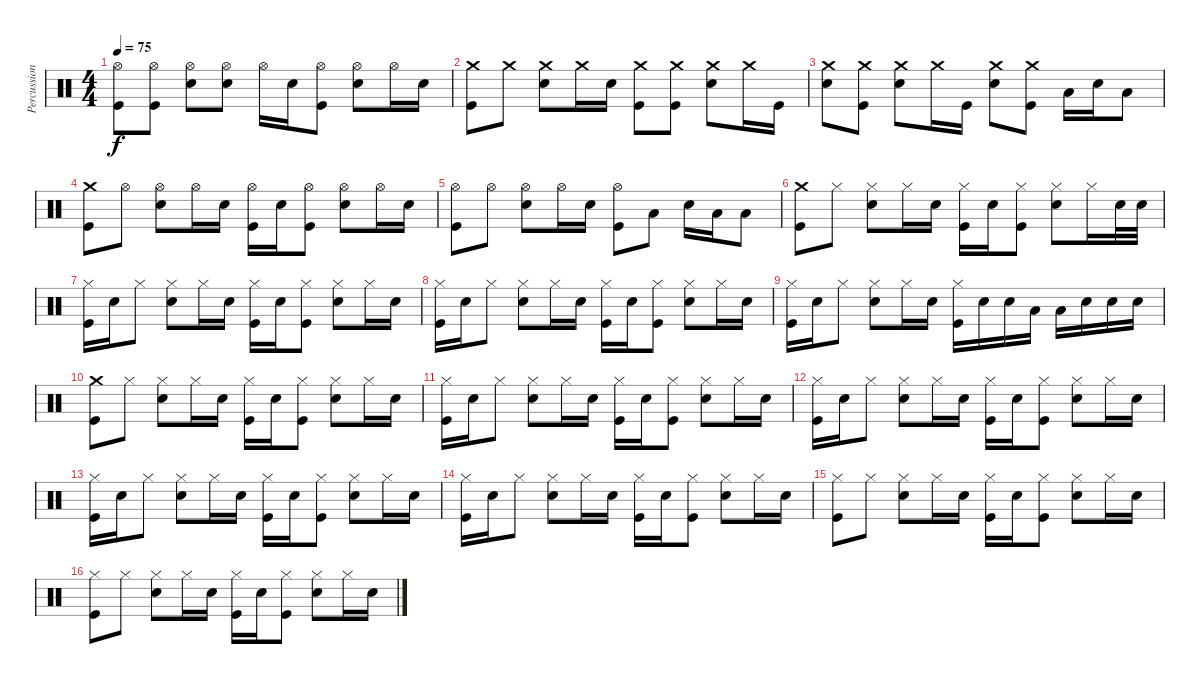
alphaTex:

\track ("Percussion" "Percussion") {instrument percussion}
\staff {score}
\articulation defaults
\ts (4 4)
\tempo 75
\clef neutral
\ks c
("Hi-Hat (open)" "Kick (hit)").8{dy f} ("Hi-Hat (open)" "Kick (hit)").8 ("Hi-Hat (open)" "Snare (hit) 2").8 ("Hi-Hat (open)" "Snare (hit) 2").8 "Hi-Hat (open)".16 "Snare (hit) 2".16 ("Hi-Hat (open)" "Kick (hit)").8 ("Hi-Hat (open)" "Snare (hit) 2").8 "Hi-Hat (open)".16 "Snare (hit) 2".16 |
("Crash medium (hit)" "Kick (hit)").8 "Crash medium (hit)".8 ("Crash medium (hit)" "Snare (hit) 2").8 "Crash medium (hit)".16 "Snare (hit) 2".16 ("Crash medium (hit)" "Kick (hit)").8 ("Crash medium (hit)" "Kick (hit)").8 ("Crash medium (hit)" "Snare (hit) 2").8 "Crash medium (hit)".16 "Kick (hit)".16 |
("Crash medium (hit)" "Snare (hit) 2").8 ("Crash medium (hit)" "Kick (hit)").8 ("Crash medium (hit)" "Snare (hit) 2").8 "Crash medium (hit)".16 "Kick (hit)".16 ("Crash medium (hit)" "Snare (hit) 2").8 ("Crash medium (hit)" "Kick (hit)").8 "Low Tom (hit)".16 "Snare (hit) 2".16 "Low Tom (hit)".8 |
("Crash medium (hit)" "Kick (hit)").8 "Hi-Hat (open)".8 ("Hi-Hat (open)" "Snare (hit) 2").8 "Hi-Hat (open)".16 "Snare (hit) 2".16 ("Hi-Hat (open)" "Kick (hit)").16 "Snare (hit) 2".16 ("Hi-Hat (open)" "Kick (hit)").8 ("Hi-Hat (open)" "Snare (hit) 2").8 "Hi-Hat (open)".16 "Snare (hit) 2".16 |
("Hi-Hat (open)" "Kick (hit)").8 "Hi-Hat (open)".8 ("Hi-Hat (open)" "Snare (hit) 2").8 "Hi-Hat (open)".16 "Snare (hit) 2".16 ("Hi-Hat (open)" "Kick (hit)").8 "Low Tom (hit)".8 "Snare (hit) 2".16 "Low Tom (hit)".16 "Low Tom (hit)".8 |
("Crash medium (hit)" "Kick (hit)").8 "Hi-Hat (closed)".8 ("Hi-Hat (closed)" "Snare (hit) 2").8 "Hi-Hat (closed)".16 "Snare (hit) 2".16 ("Hi-Hat (closed)" "Kick (hit)").16 "Snare (hit) 2".16 ("Hi-Hat (closed)" "Kick (hit)").8 ("Hi-Hat (closed)" "Snare (hit) 2").8 "Hi-Hat (closed)".16 "Snare (hit) 2".32 "Snare (hit) 2".32 |
("Hi-Hat (closed)" "Kick (hit)").16 "Snare (hit) 2".16 "Hi-Hat (closed)".8 ("Hi-Hat (closed)" "Snare (hit) 2").8 "Hi-Hat (closed)".16 "Snare (hit) 2".16 ("Hi-Hat (closed)" "Kick (hit)").16 "Snare (hit) 2".16 ("Hi-Hat (closed)" "Kick (hit)").8 ("Hi-Hat (closed)" "Snare (hit) 2").8 "Hi-Hat (closed)".16 "Snare (hit) 2".16 |
("Hi-Hat (closed)" "Kick (hit)").16 "Snare (hit) 2".16 "Hi-Hat (closed)".8 ("Hi-Hat (closed)" "Snare (hit) 2").8 "Hi-Hat (closed)".16 "Snare (hit) 2".16 ("Hi-Hat (closed)" "Kick (hit)").16 "Snare (hit) 2".16 ("Hi-Hat (closed)" "Kick (hit)").8 ("Hi-Hat (closed)" "Snare (hit) 2").8 "Hi-Hat (closed)".16 "Snare (hit) 2".16 |
("Hi-Hat (closed)" "Kick (hit)").16 "Snare (hit) 2".16 "Hi-Hat (closed)".8 ("Hi-Hat (closed)" "Snare (hit) 2").8 "Hi-Hat (closed)".16 "Snare (hit) 2".16 ("Hi-Hat (closed)" "Kick (hit)").16 "Snare (hit) 2".16 "Snare (hit) 2".16 "Low Tom (hit)".16 "Low Tom (hit)".16 "Snare (hit) 2".16 "Snare (hit) 2".16 "Snare (hit) 2".16 |
("Crash medium (hit)" "Kick (hit)").8 "Hi-Hat (closed)".8 ("Hi-Hat (closed)" "Snare (hit) 2").8 "Hi-Hat (closed)".16 "Snare (hit) 2".16 ("Hi-Hat (closed)" "Kick (hit)").16 "Snare (hit) 2".16 ("Hi-Hat (closed)" "Kick (hit)").8 ("Hi-Hat (closed)" "Snare (hit) 2").8 "Hi-Hat (closed)".16 "Snare (hit) 2".16 |
("Hi-Hat (closed)" "Kick (hit)").16 "Snare (hit) 2".16 "Hi-Hat (closed)".8 ("Hi-Hat (closed)" "Snare (hit) 2").8 "Hi-Hat (closed)".16 "Snare (hit) 2".16 ("Hi-Hat (closed)" "Kick (hit)").16 "Snare (hit) 2".16 ("Hi-Hat (closed)" "Kick (hit)").8 ("Hi-Hat (closed)" "Snare (hit) 2").8 "Hi-Hat (closed)".16 "Snare (hit) 2".16 |
("Hi-Hat (closed)" "Kick (hit)").16 "Snare (hit) 2".16 "Hi-Hat (closed)".8 ("Hi-Hat (closed)" "Snare (hit) 2").8 "Hi-Hat (closed)".16 "Snare (hit) 2".16 ("Hi-Hat (closed)" "Kick (hit)").16 "Snare (hit) 2".16 ("Hi-Hat (closed)" "Kick (hit)").8 ("Hi-Hat (closed)" "Snare (hit) 2").8 "Hi-Hat (closed)".16 "Snare (hit) 2".16 |
("Hi-Hat (closed)" "Kick (hit)").16 "Snare (hit) 2".16 "Hi-Hat (closed)".8 ("Hi-Hat (closed)" "Snare (hit) 2").8 "Hi-Hat (closed)".16 "Snare (hit) 2".16 ("Hi-Hat (closed)" "Kick (hit)").16 "Snare (hit) 2".16 ("Hi-Hat (closed)" "Kick (hit)").8 ("Hi-Hat (closed)" "Snare (hit) 2").8 "Hi-Hat (closed)".16 "Snare (hit) 2".16 |
("Hi-Hat (closed)" "Kick (hit)").16 "Snare (hit) 2".16 "Hi-Hat (closed)".8 ("Hi-Hat (closed)" "Snare (hit) 2").8 "Hi-Hat (closed)".16 "Snare (hit) 2".16 ("Hi-Hat (closed)" "Kick (hit)").16 "Snare (hit) 2".16 ("Hi-Hat (closed)" "Kick (hit)").8 ("Hi-Hat (closed)" "Snare (hit) 2").8 "Hi-Hat (closed)".16 "Snare (hit) 2".16 |
("Hi-Hat (closed)" "Kick (hit)").8 "Hi-Hat (closed)".8 ("Hi-Hat (closed)" "Snare (hit) 2").8 "Hi-Hat (closed)".16 "Snare (hit) 2".16 ("Hi-Hat (closed)" "Kick (hit)").16 "Snare (hit) 2".16 ("Hi-Hat (closed)" "Kick (hit)").8 ("Hi-Hat (closed)" "Snare (hit) 2").8 "Hi-Hat (closed)".16 "Snare (hit) 2".16 |
("Hi-Hat (closed)" "Kick (hit)").8 "Hi-Hat (closed)".8 ("Hi-Hat (closed)" "Snare (hit) 2").8 "Hi-Hat (closed)".16 "Snare (hit) 2".16 ("Hi-Hat (closed)" "Kick (hit)").16 "Snare (hit) 2".16 ("Hi-Hat (closed)" "Kick (hit)").8 ("Hi-Hat (closed)" "Snare (hit) 2").8 "Hi-Hat (closed)".16 "Snare (hit) 2".16
